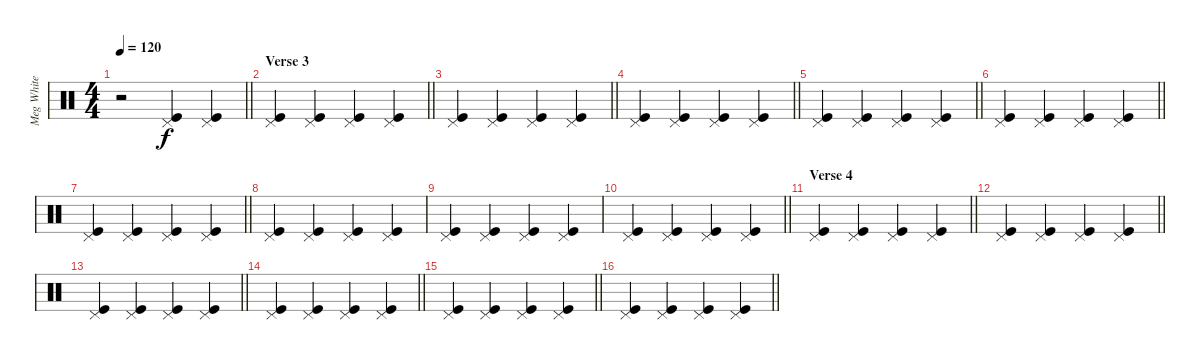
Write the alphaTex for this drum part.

\track ("Meg White (Drums)" "Meg White ") {instrument percussion}
\staff {score}
\articulation defaults
\ts (4 4)
\tempo 120
\clef neutral
\barLineRight lightlight
\ks c
r.2{dy f} ("Kick (hit)" "Pedal Hi-Hat (hit)").4 ("Kick (hit)" "Pedal Hi-Hat (hit)").4 |
\section ("" "Verse 3")
\barLineRight lightlight
("Kick (hit)" "Pedal Hi-Hat (hit)").4 ("Kick (hit)" "Pedal Hi-Hat (hit)").4 ("Kick (hit)" "Pedal Hi-Hat (hit)").4 ("Kick (hit)" "Pedal Hi-Hat (hit)").4 |
\barLineRight lightlight
("Kick (hit)" "Pedal Hi-Hat (hit)").4 ("Kick (hit)" "Pedal Hi-Hat (hit)").4 ("Kick (hit)" "Pedal Hi-Hat (hit)").4 ("Kick (hit)" "Pedal Hi-Hat (hit)").4 |
\barLineRight lightlight
("Kick (hit)" "Pedal Hi-Hat (hit)").4 ("Kick (hit)" "Pedal Hi-Hat (hit)").4 ("Kick (hit)" "Pedal Hi-Hat (hit)").4 ("Kick (hit)" "Pedal Hi-Hat (hit)").4 |
\barLineRight lightlight
("Kick (hit)" "Pedal Hi-Hat (hit)").4 ("Kick (hit)" "Pedal Hi-Hat (hit)").4 ("Kick (hit)" "Pedal Hi-Hat (hit)").4 ("Kick (hit)" "Pedal Hi-Hat (hit)").4 |
\barLineRight lightlight
("Kick (hit)" "Pedal Hi-Hat (hit)").4 ("Kick (hit)" "Pedal Hi-Hat (hit)").4 ("Kick (hit)" "Pedal Hi-Hat (hit)").4 ("Kick (hit)" "Pedal Hi-Hat (hit)").4 |
\barLineRight lightlight
("Kick (hit)" "Pedal Hi-Hat (hit)").4 ("Kick (hit)" "Pedal Hi-Hat (hit)").4 ("Kick (hit)" "Pedal Hi-Hat (hit)").4 ("Kick (hit)" "Pedal Hi-Hat (hit)").4 |
("Kick (hit)" "Pedal Hi-Hat (hit)").4 ("Kick (hit)" "Pedal Hi-Hat (hit)").4 ("Kick (hit)" "Pedal Hi-Hat (hit)").4 ("Kick (hit)" "Pedal Hi-Hat (hit)").4 |
("Kick (hit)" "Pedal Hi-Hat (hit)").4 ("Kick (hit)" "Pedal Hi-Hat (hit)").4 ("Kick (hit)" "Pedal Hi-Hat (hit)").4 ("Kick (hit)" "Pedal Hi-Hat (hit)").4 |
\barLineRight lightlight
("Kick (hit)" "Pedal Hi-Hat (hit)").4 ("Kick (hit)" "Pedal Hi-Hat (hit)").4 ("Kick (hit)" "Pedal Hi-Hat (hit)").4 ("Kick (hit)" "Pedal Hi-Hat (hit)").4 |
\section ("" "Verse 4")
\barLineRight lightlight
("Kick (hit)" "Pedal Hi-Hat (hit)").4 ("Kick (hit)" "Pedal Hi-Hat (hit)").4 ("Kick (hit)" "Pedal Hi-Hat (hit)").4 ("Kick (hit)" "Pedal Hi-Hat (hit)").4 |
\barLineRight lightlight
("Kick (hit)" "Pedal Hi-Hat (hit)").4 ("Kick (hit)" "Pedal Hi-Hat (hit)").4 ("Kick (hit)" "Pedal Hi-Hat (hit)").4 ("Kick (hit)" "Pedal Hi-Hat (hit)").4 |
\barLineRight lightlight
("Kick (hit)" "Pedal Hi-Hat (hit)").4 ("Kick (hit)" "Pedal Hi-Hat (hit)").4 ("Kick (hit)" "Pedal Hi-Hat (hit)").4 ("Kick (hit)" "Pedal Hi-Hat (hit)").4 |
\barLineRight lightlight
("Kick (hit)" "Pedal Hi-Hat (hit)").4 ("Kick (hit)" "Pedal Hi-Hat (hit)").4 ("Kick (hit)" "Pedal Hi-Hat (hit)").4 ("Kick (hit)" "Pedal Hi-Hat (hit)").4 |
\barLineRight lightlight
("Kick (hit)" "Pedal Hi-Hat (hit)").4 ("Kick (hit)" "Pedal Hi-Hat (hit)").4 ("Kick (hit)" "Pedal Hi-Hat (hit)").4 ("Kick (hit)" "Pedal Hi-Hat (hit)").4 |
\barLineRight lightlight
("Kick (hit)" "Pedal Hi-Hat (hit)").4 ("Kick (hit)" "Pedal Hi-Hat (hit)").4 ("Kick (hit)" "Pedal Hi-Hat (hit)").4 ("Kick (hit)" "Pedal Hi-Hat (hit)").4
